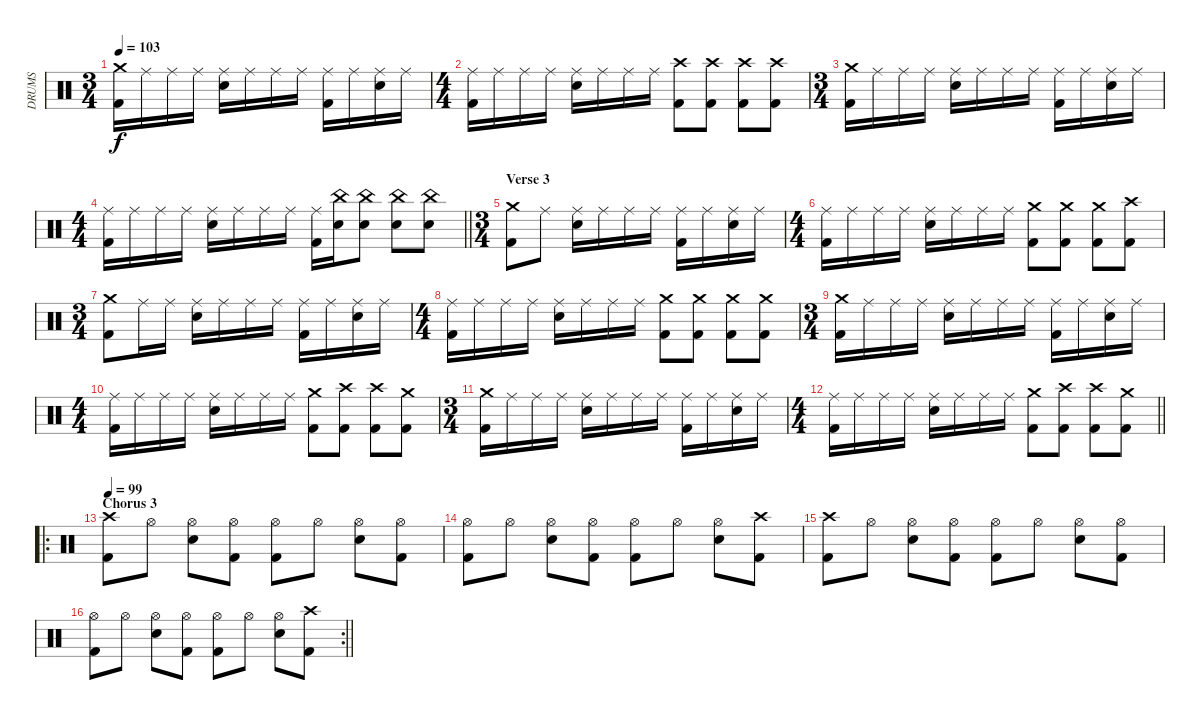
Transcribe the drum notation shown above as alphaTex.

\track ("DRUMS" "DRUMS") {instrument percussion}
\staff {score}
\articulation defaults
\ts (3 4)
\tempo 103
\clef neutral
\ks c
("Crash medium (hit)" "Kick (hit) 2").16{dy f} "Ride (middle)".16 "Ride (middle)".16 "Ride (middle)".16 ("Ride (middle)" "Snare (hit) 2").16 "Ride (middle)".16 "Ride (middle)".16 "Ride (middle)".16 ("Ride (middle)" "Kick (hit) 2").16 "Ride (middle)".16 ("Ride (middle)" "Snare (hit) 2").16 "Ride (middle)".16 |
\ts (4 4)
("Ride (middle)" "Kick (hit) 2").16 "Ride (middle)".16 "Ride (middle)".16 "Ride (middle)".16 ("Ride (middle)" "Snare (hit) 2").16 "Ride (middle)".16 "Ride (middle)".16 "Ride (middle)".16 ("Crash high (hit)" "Kick (hit) 2").8 ("Crash high (hit)" "Kick (hit) 2").8 ("Crash high (hit)" "Kick (hit) 2").8 ("Crash high (hit)" "Kick (hit) 2").8 |
\ts (3 4)
("Crash medium (hit)" "Kick (hit) 2").16 "Ride (middle)".16 "Ride (middle)".16 "Ride (middle)".16 ("Ride (middle)" "Snare (hit) 2").16 "Ride (middle)".16 "Ride (middle)".16 "Ride (middle)".16 ("Ride (middle)" "Kick (hit) 2").16 "Ride (middle)".16 ("Ride (middle)" "Snare (hit) 2").16 "Ride (middle)".16 |
\ts (4 4)
\barLineRight lightlight
("Ride (middle)" "Kick (hit) 2").16 "Ride (middle)".16 "Ride (middle)".16 "Ride (middle)".16 ("Ride (middle)" "Snare (hit) 2").16 "Ride (middle)".16 "Ride (middle)".16 "Ride (middle)".16 ("Ride (middle)" "Kick (hit) 2").16 ("China (hit)" "Snare (hit) 2").16 ("China (hit)" "Snare (hit) 2").8 ("China (hit)" "Snare (hit) 2").8 ("China (hit)" "Snare (hit) 2").8 |
\ts (3 4)
\section ("" "Verse 3")
("Crash medium (hit)" "Kick (hit) 2").8 "Ride (middle)".8 ("Ride (middle)" "Snare (hit) 2").16 "Ride (middle)".16 "Ride (middle)".16 "Ride (middle)".16 ("Ride (middle)" "Kick (hit) 2").16 "Ride (middle)".16 ("Ride (middle)" "Snare (hit) 2").16 "Ride (middle)".16 |
\ts (4 4)
("Ride (middle)" "Kick (hit) 2").16 "Ride (middle)".16 "Ride (middle)".16 "Ride (middle)".16 ("Ride (middle)" "Snare (hit) 2").16 "Ride (middle)".16 "Ride (middle)".16 "Ride (middle)".16 ("Crash medium (hit)" "Kick (hit) 2").8 ("Crash medium (hit)" "Kick (hit) 2").8 ("Crash medium (hit)" "Kick (hit) 2").8 ("Crash high (hit)" "Kick (hit) 2").8 |
\ts (3 4)
("Crash medium (hit)" "Kick (hit) 2").8 "Ride (middle)".16 "Ride (middle)".16 ("Ride (middle)" "Snare (hit) 2").16 "Ride (middle)".16 "Ride (middle)".16 "Ride (middle)".16 ("Ride (middle)" "Kick (hit) 2").16 "Ride (middle)".16 ("Ride (middle)" "Snare (hit) 2").16 "Ride (middle)".16 |
\ts (4 4)
("Ride (middle)" "Kick (hit) 2").16 "Ride (middle)".16 "Ride (middle)".16 "Ride (middle)".16 ("Ride (middle)" "Snare (hit) 2").16 "Ride (middle)".16 "Ride (middle)".16 "Ride (middle)".16 ("Crash medium (hit)" "Kick (hit) 2").8 ("Crash medium (hit)" "Kick (hit) 2").8 ("Crash medium (hit)" "Kick (hit) 2").8 ("Crash medium (hit)" "Kick (hit) 2").8 |
\ts (3 4)
("Crash medium (hit)" "Kick (hit) 2").16 "Ride (middle)".16 "Ride (middle)".16 "Ride (middle)".16 ("Ride (middle)" "Snare (hit) 2").16 "Ride (middle)".16 "Ride (middle)".16 "Ride (middle)".16 ("Ride (middle)" "Kick (hit) 2").16 "Ride (middle)".16 ("Ride (middle)" "Snare (hit) 2").16 "Ride (middle)".16 |
\ts (4 4)
("Ride (middle)" "Kick (hit) 2").16 "Ride (middle)".16 "Ride (middle)".16 "Ride (middle)".16 ("Ride (middle)" "Snare (hit) 2").16 "Ride (middle)".16 "Ride (middle)".16 "Ride (middle)".16 ("Crash medium (hit)" "Kick (hit) 2").8 ("Crash high (hit)" "Kick (hit) 2").8 ("Crash high (hit)" "Kick (hit) 2").8 ("Crash medium (hit)" "Kick (hit) 2").8 |
\ts (3 4)
("Crash medium (hit)" "Kick (hit) 2").16 "Ride (middle)".16 "Ride (middle)".16 "Ride (middle)".16 ("Ride (middle)" "Snare (hit) 2").16 "Ride (middle)".16 "Ride (middle)".16 "Ride (middle)".16 ("Ride (middle)" "Kick (hit) 2").16 "Ride (middle)".16 ("Ride (middle)" "Snare (hit) 2").16 "Ride (middle)".16 |
\ts (4 4)
\barLineRight lightlight
("Ride (middle)" "Kick (hit) 2").16 "Ride (middle)".16 "Ride (middle)".16 "Ride (middle)".16 ("Ride (middle)" "Snare (hit) 2").16 "Ride (middle)".16 "Ride (middle)".16 "Ride (middle)".16 ("Crash medium (hit)" "Kick (hit) 2").8 ("Crash high (hit)" "Kick (hit) 2").8 ("Crash high (hit)" "Kick (hit) 2").8 ("Crash medium (hit)" "Kick (hit) 2").8 |
\ro
\section ("" "Chorus 3")
\tempo 99
("Crash high (hit)" "Kick (hit) 2").8 "Hi-Hat (open)".8 ("Hi-Hat (open)" "Snare (hit) 2").8 ("Hi-Hat (open)" "Kick (hit) 2").8 ("Hi-Hat (open)" "Kick (hit) 2").8 "Hi-Hat (open)".8 ("Hi-Hat (open)" "Snare (hit) 2").8 ("Hi-Hat (open)" "Kick (hit) 2").8 |
("Hi-Hat (open)" "Kick (hit) 2").8 "Hi-Hat (open)".8 ("Hi-Hat (open)" "Snare (hit) 2").8 ("Hi-Hat (open)" "Kick (hit) 2").8 ("Hi-Hat (open)" "Kick (hit) 2").8 "Hi-Hat (open)".8 ("Hi-Hat (open)" "Snare (hit) 2").8 ("Crash high (hit)" "Kick (hit) 2").8 |
("Crash high (hit)" "Kick (hit) 2").8 "Hi-Hat (open)".8 ("Hi-Hat (open)" "Snare (hit) 2").8 ("Hi-Hat (open)" "Kick (hit) 2").8 ("Hi-Hat (open)" "Kick (hit) 2").8 "Hi-Hat (open)".8 ("Hi-Hat (open)" "Snare (hit) 2").8 ("Hi-Hat (open)" "Kick (hit) 2").8 |
\rc 2
\barLineRight lightlight
("Hi-Hat (open)" "Kick (hit) 2").8 "Hi-Hat (open)".8 ("Hi-Hat (open)" "Snare (hit) 2").8 ("Hi-Hat (open)" "Kick (hit) 2").8 ("Hi-Hat (open)" "Kick (hit) 2").8 "Hi-Hat (open)".8 ("Hi-Hat (open)" "Snare (hit) 2").8 ("Crash high (hit)" "Kick (hit) 2").8
